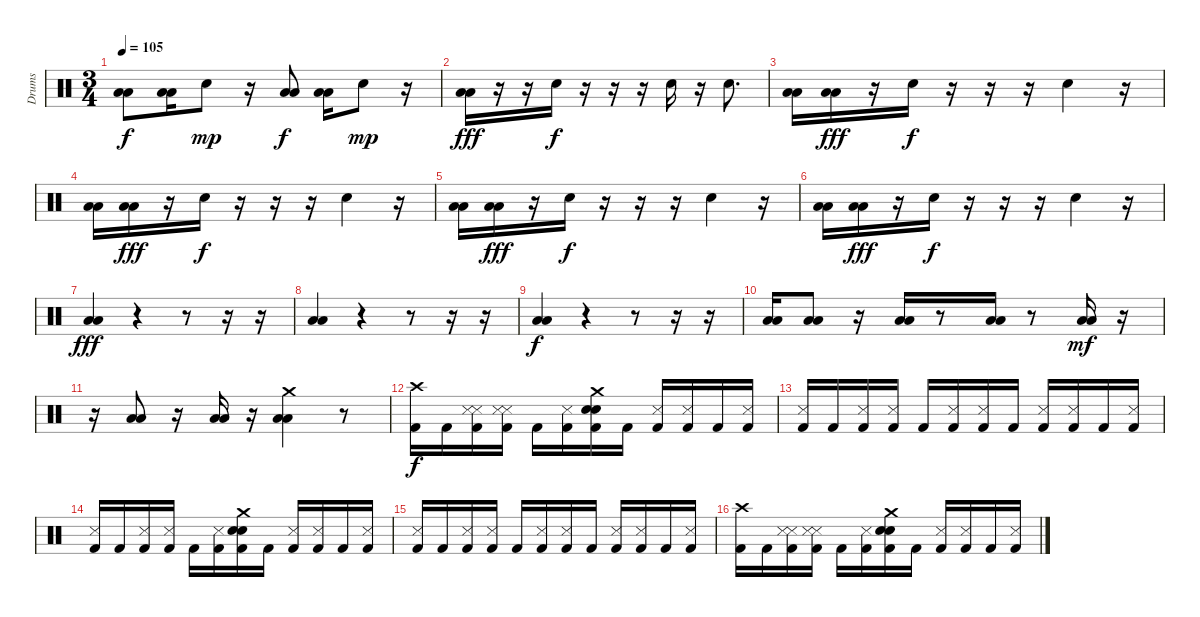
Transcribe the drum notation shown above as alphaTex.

\track ("Drums" "Drums") {instrument percussion}
\staff {score}
\articulation defaults
\ts (3 4)
\tempo 105
\clef neutral
\ks c
("Low Floor Tom (hit)" "Low Floor Tom (hit)").8{dy f} ("Low Floor Tom (hit)" "Low Floor Tom (hit)").16 "Hand Clap (hit)".8{dy mp} r.16 ("Low Floor Tom (hit)" "Low Floor Tom (hit)").8{dy f} ("Low Floor Tom (hit)" "Low Floor Tom (hit)").16 "Hand Clap (hit)".8{dy mp} r.16 |
("Low Floor Tom (hit)" "Low Floor Tom (hit)").16{dy fff} r.16 r.16 "Hand Clap (hit)".16{dy f} r.16 r.16 r.16 "Hand Clap (hit)".16 r.16 "Hand Clap (hit)".8{d} |
("Low Floor Tom (hit)" "Low Floor Tom (hit)").16 ("Low Floor Tom (hit)" "Low Floor Tom (hit)").16{dy fff} r.16 "Hand Clap (hit)".16{dy f} r.16 r.16 r.16 "Hand Clap (hit)".4 r.16 |
("Low Floor Tom (hit)" "Low Floor Tom (hit)").16 ("Low Floor Tom (hit)" "Low Floor Tom (hit)").16{dy fff} r.16 "Hand Clap (hit)".16{dy f} r.16 r.16 r.16 "Hand Clap (hit)".4 r.16 |
("Low Floor Tom (hit)" "Low Floor Tom (hit)").16 ("Low Floor Tom (hit)" "Low Floor Tom (hit)").16{dy fff} r.16 "Hand Clap (hit)".16{dy f} r.16 r.16 r.16 "Hand Clap (hit)".4 r.16 |
("Low Floor Tom (hit)" "Low Floor Tom (hit)").16 ("Low Floor Tom (hit)" "Low Floor Tom (hit)").16{dy fff} r.16 "Hand Clap (hit)".16{dy f} r.16 r.16 r.16 "Hand Clap (hit)".4 r.16 |
("Low Floor Tom (hit)" "Low Floor Tom (hit)").4{dy fff} r.4 r.8 r.16 r.16 |
("Low Floor Tom (hit)" "Low Floor Tom (hit)").4 r.4 r.8 r.16 r.16 |
("Low Floor Tom (hit)" "Low Floor Tom (hit)").4{dy f} r.4 r.8 r.16 r.16 |
("Low Floor Tom (hit)" "Low Floor Tom (hit)").16 ("Low Floor Tom (hit)" "Low Floor Tom (hit)").8 r.16 ("Low Floor Tom (hit)" "Low Floor Tom (hit)").16 r.8 ("Low Floor Tom (hit)" "Low Floor Tom (hit)").16 r.8 ("Low Floor Tom (hit)" "Low Floor Tom (hit)").16{dy mf} r.16 |
r.16 ("Low Floor Tom (hit)" "Low Floor Tom (hit)").8 r.16 ("Low Floor Tom (hit)" "Low Floor Tom (hit)").16 r.16 ("Crash medium (hit)" "Low Floor Tom (hit)" "Low Floor Tom (hit)").4 r.8 |
("Crash high (hit)" "Kick (hit) 2").16{dy f} "Kick (hit) 2".16 ("Snare (side stick) 3" "Snare (side stick) 3" "Kick (hit) 2").16 ("Snare (side stick) 3" "Snare (side stick) 3" "Kick (hit) 2").16 "Kick (hit) 2".16 ("Snare (side stick) 3" "Kick (hit) 2").16 ("Crash medium (hit)" "Snare (hit) 2" "Snare (hit) 2" "Kick (hit) 2").16 "Kick (hit) 2".16 ("Snare (side stick) 3" "Kick (hit) 2").16 ("Snare (side stick) 3" "Kick (hit) 2").16 "Kick (hit) 2".16 ("Snare (side stick) 3" "Kick (hit) 2").16 |
("Snare (side stick) 3" "Kick (hit) 2").16 "Kick (hit) 2".16 ("Snare (side stick) 3" "Kick (hit) 2").16 ("Snare (side stick) 3" "Kick (hit) 2").16 "Kick (hit) 2".16 ("Snare (side stick) 3" "Kick (hit) 2").16 ("Snare (side stick) 3" "Kick (hit) 2").16 "Kick (hit) 2".16 ("Snare (side stick) 3" "Kick (hit) 2").16 ("Snare (side stick) 3" "Kick (hit) 2").16 "Kick (hit) 2".16 ("Snare (side stick) 3" "Kick (hit) 2").16 |
("Snare (side stick) 3" "Kick (hit) 2").16 "Kick (hit) 2".16 ("Snare (side stick) 3" "Kick (hit) 2").16 ("Snare (side stick) 3" "Kick (hit) 2").16 "Kick (hit) 2".16 ("Snare (side stick) 3" "Kick (hit) 2").16 ("Crash medium (hit)" "Snare (hit) 2" "Snare (hit) 2" "Kick (hit) 2").16 "Kick (hit) 2".16 ("Snare (side stick) 3" "Kick (hit) 2").16 ("Snare (side stick) 3" "Kick (hit) 2").16 "Kick (hit) 2".16 ("Snare (side stick) 3" "Kick (hit) 2").16 |
("Snare (side stick) 3" "Kick (hit) 2").16 "Kick (hit) 2".16 ("Snare (side stick) 3" "Kick (hit) 2").16 ("Snare (side stick) 3" "Kick (hit) 2").16 "Kick (hit) 2".16 ("Snare (side stick) 3" "Kick (hit) 2").16 ("Snare (side stick) 3" "Kick (hit) 2").16 "Kick (hit) 2".16 ("Snare (side stick) 3" "Kick (hit) 2").16 ("Snare (side stick) 3" "Kick (hit) 2").16 "Kick (hit) 2".16 ("Snare (side stick) 3" "Kick (hit) 2").16 |
("Crash high (hit)" "Kick (hit) 2").16 "Kick (hit) 2".16 ("Snare (side stick) 3" "Snare (side stick) 3" "Kick (hit) 2").16 ("Snare (side stick) 3" "Snare (side stick) 3" "Kick (hit) 2").16 "Kick (hit) 2".16 ("Snare (side stick) 3" "Kick (hit) 2").16 ("Crash medium (hit)" "Snare (hit) 2" "Snare (hit) 2" "Kick (hit) 2").16 "Kick (hit) 2".16 ("Snare (side stick) 3" "Kick (hit) 2").16 ("Snare (side stick) 3" "Kick (hit) 2").16 "Kick (hit) 2".16 ("Snare (side stick) 3" "Kick (hit) 2").16
